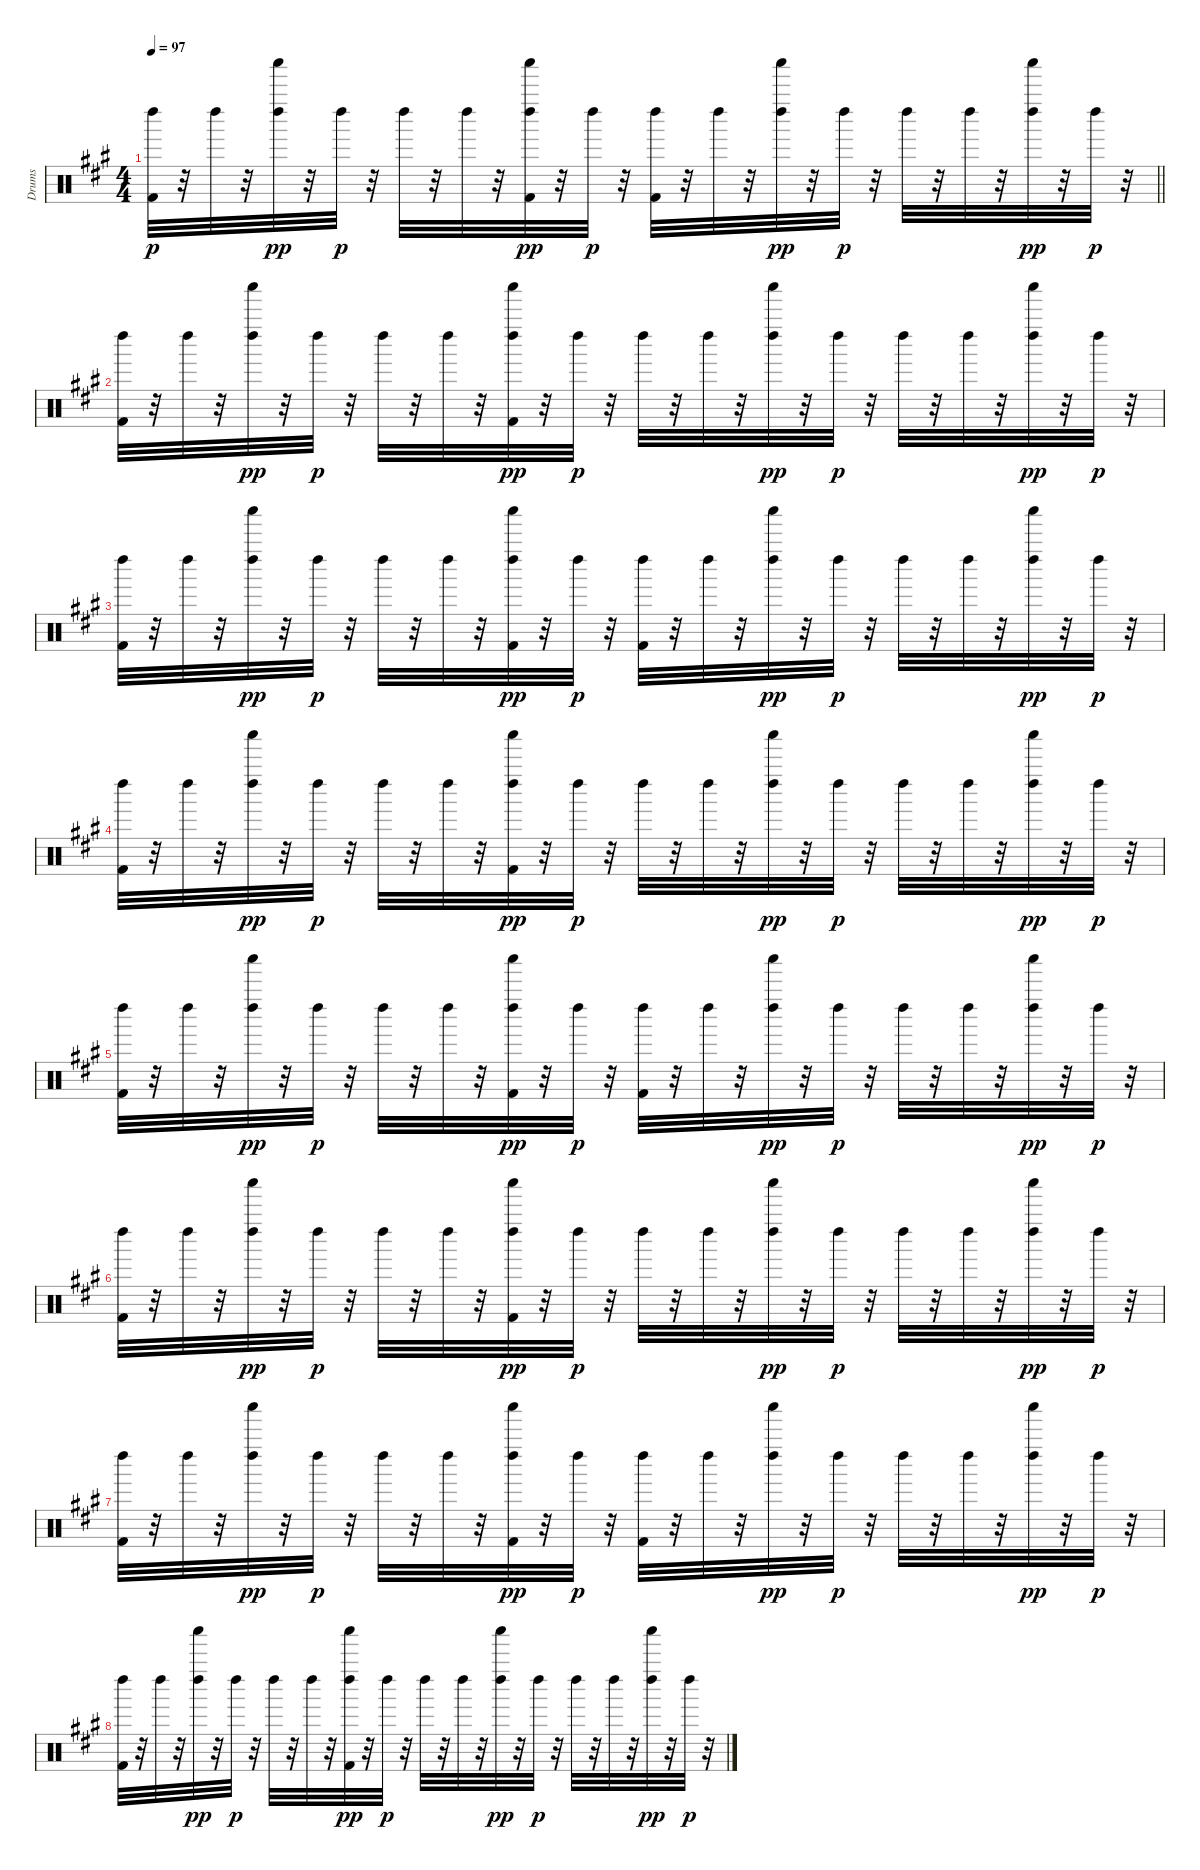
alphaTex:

\track ("Drums" "Drums") {instrument percussion}
\staff {score}
\articulation defaults
\ts (4 4)
\tempo 97
\clef neutral
\barLineRight lightlight
\ks a
("Kick (hit) 2" "Left Maraca (hit)").32{dy p} r.32 "Left Maraca (hit)".32 r.32 ("Shaker (hit)" "Left Maraca (hit)").32{dy pp} r.32 "Left Maraca (hit)".32{dy p} r.32 "Left Maraca (hit)".32 r.32 "Left Maraca (hit)".32 r.32 ("Kick (hit) 2" "Shaker (hit)" "Left Maraca (hit)").32{dy pp} r.32 "Left Maraca (hit)".32{dy p} r.32 ("Kick (hit) 2" "Left Maraca (hit)").32 r.32 "Left Maraca (hit)".32 r.32 ("Shaker (hit)" "Left Maraca (hit)").32{dy pp} r.32 "Left Maraca (hit)".32{dy p} r.32 "Left Maraca (hit)".32 r.32 "Left Maraca (hit)".32 r.32 ("Shaker (hit)" "Left Maraca (hit)").32{dy pp} r.32 "Left Maraca (hit)".32{dy p} r.32 |
("Kick (hit) 2" "Left Maraca (hit)").32 r.32 "Left Maraca (hit)".32 r.32 ("Shaker (hit)" "Left Maraca (hit)").32{dy pp} r.32 "Left Maraca (hit)".32{dy p} r.32 "Left Maraca (hit)".32 r.32 "Left Maraca (hit)".32 r.32 ("Kick (hit) 2" "Shaker (hit)" "Left Maraca (hit)").32{dy pp} r.32 "Left Maraca (hit)".32{dy p} r.32 "Left Maraca (hit)".32 r.32 "Left Maraca (hit)".32 r.32 ("Shaker (hit)" "Left Maraca (hit)").32{dy pp} r.32 "Left Maraca (hit)".32{dy p} r.32 "Left Maraca (hit)".32 r.32 "Left Maraca (hit)".32 r.32 ("Shaker (hit)" "Left Maraca (hit)").32{dy pp} r.32 "Left Maraca (hit)".32{dy p} r.32 |
("Kick (hit) 2" "Left Maraca (hit)").32 r.32 "Left Maraca (hit)".32 r.32 ("Shaker (hit)" "Left Maraca (hit)").32{dy pp} r.32 "Left Maraca (hit)".32{dy p} r.32 "Left Maraca (hit)".32 r.32 "Left Maraca (hit)".32 r.32 ("Kick (hit) 2" "Shaker (hit)" "Left Maraca (hit)").32{dy pp} r.32 "Left Maraca (hit)".32{dy p} r.32 ("Kick (hit) 2" "Left Maraca (hit)").32 r.32 "Left Maraca (hit)".32 r.32 ("Shaker (hit)" "Left Maraca (hit)").32{dy pp} r.32 "Left Maraca (hit)".32{dy p} r.32 "Left Maraca (hit)".32 r.32 "Left Maraca (hit)".32 r.32 ("Shaker (hit)" "Left Maraca (hit)").32{dy pp} r.32 "Left Maraca (hit)".32{dy p} r.32 |
("Kick (hit) 2" "Left Maraca (hit)").32 r.32 "Left Maraca (hit)".32 r.32 ("Shaker (hit)" "Left Maraca (hit)").32{dy pp} r.32 "Left Maraca (hit)".32{dy p} r.32 "Left Maraca (hit)".32 r.32 "Left Maraca (hit)".32 r.32 ("Kick (hit) 2" "Shaker (hit)" "Left Maraca (hit)").32{dy pp} r.32 "Left Maraca (hit)".32{dy p} r.32 "Left Maraca (hit)".32 r.32 "Left Maraca (hit)".32 r.32 ("Shaker (hit)" "Left Maraca (hit)").32{dy pp} r.32 "Left Maraca (hit)".32{dy p} r.32 "Left Maraca (hit)".32 r.32 "Left Maraca (hit)".32 r.32 ("Shaker (hit)" "Left Maraca (hit)").32{dy pp} r.32 "Left Maraca (hit)".32{dy p} r.32 |
("Kick (hit) 2" "Left Maraca (hit)").32 r.32 "Left Maraca (hit)".32 r.32 ("Shaker (hit)" "Left Maraca (hit)").32{dy pp} r.32 "Left Maraca (hit)".32{dy p} r.32 "Left Maraca (hit)".32 r.32 "Left Maraca (hit)".32 r.32 ("Kick (hit) 2" "Shaker (hit)" "Left Maraca (hit)").32{dy pp} r.32 "Left Maraca (hit)".32{dy p} r.32 ("Kick (hit) 2" "Left Maraca (hit)").32 r.32 "Left Maraca (hit)".32 r.32 ("Shaker (hit)" "Left Maraca (hit)").32{dy pp} r.32 "Left Maraca (hit)".32{dy p} r.32 "Left Maraca (hit)".32 r.32 "Left Maraca (hit)".32 r.32 ("Shaker (hit)" "Left Maraca (hit)").32{dy pp} r.32 "Left Maraca (hit)".32{dy p} r.32 |
("Kick (hit) 2" "Left Maraca (hit)").32 r.32 "Left Maraca (hit)".32 r.32 ("Shaker (hit)" "Left Maraca (hit)").32{dy pp} r.32 "Left Maraca (hit)".32{dy p} r.32 "Left Maraca (hit)".32 r.32 "Left Maraca (hit)".32 r.32 ("Kick (hit) 2" "Shaker (hit)" "Left Maraca (hit)").32{dy pp} r.32 "Left Maraca (hit)".32{dy p} r.32 "Left Maraca (hit)".32 r.32 "Left Maraca (hit)".32 r.32 ("Shaker (hit)" "Left Maraca (hit)").32{dy pp} r.32 "Left Maraca (hit)".32{dy p} r.32 "Left Maraca (hit)".32 r.32 "Left Maraca (hit)".32 r.32 ("Shaker (hit)" "Left Maraca (hit)").32{dy pp} r.32 "Left Maraca (hit)".32{dy p} r.32 |
("Kick (hit) 2" "Left Maraca (hit)").32 r.32 "Left Maraca (hit)".32 r.32 ("Shaker (hit)" "Left Maraca (hit)").32{dy pp} r.32 "Left Maraca (hit)".32{dy p} r.32 "Left Maraca (hit)".32 r.32 "Left Maraca (hit)".32 r.32 ("Kick (hit) 2" "Shaker (hit)" "Left Maraca (hit)").32{dy pp} r.32 "Left Maraca (hit)".32{dy p} r.32 ("Kick (hit) 2" "Left Maraca (hit)").32 r.32 "Left Maraca (hit)".32 r.32 ("Shaker (hit)" "Left Maraca (hit)").32{dy pp} r.32 "Left Maraca (hit)".32{dy p} r.32 "Left Maraca (hit)".32 r.32 "Left Maraca (hit)".32 r.32 ("Shaker (hit)" "Left Maraca (hit)").32{dy pp} r.32 "Left Maraca (hit)".32{dy p} r.32 |
("Kick (hit) 2" "Left Maraca (hit)").32 r.32 "Left Maraca (hit)".32 r.32 ("Shaker (hit)" "Left Maraca (hit)").32{dy pp} r.32 "Left Maraca (hit)".32{dy p} r.32 "Left Maraca (hit)".32 r.32 "Left Maraca (hit)".32 r.32 ("Kick (hit) 2" "Shaker (hit)" "Left Maraca (hit)").32{dy pp} r.32 "Left Maraca (hit)".32{dy p} r.32 "Left Maraca (hit)".32 r.32 "Left Maraca (hit)".32 r.32 ("Shaker (hit)" "Left Maraca (hit)").32{dy pp} r.32 "Left Maraca (hit)".32{dy p} r.32 "Left Maraca (hit)".32 r.32 "Left Maraca (hit)".32 r.32 ("Shaker (hit)" "Left Maraca (hit)").32{dy pp} r.32 "Left Maraca (hit)".32{dy p} r.32
